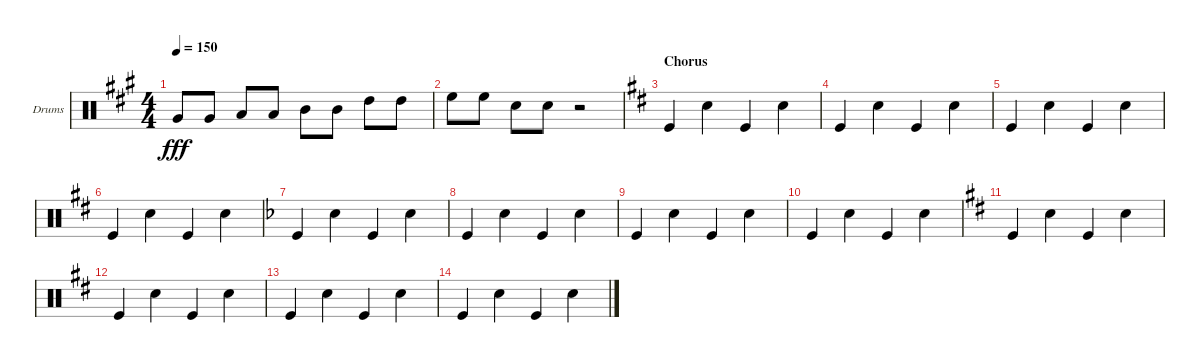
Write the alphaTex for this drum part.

\defaultSystemsLayout 4
\bracketExtendMode groupsimilarinstruments
\firstSystemTrackNameOrientation horizontal
\otherSystemsTrackNameOrientation horizontal
\track ("Drumkit" "Drums") {instrument percussion}
\staff {score}
\articulation defaults
\ts (4 4)
\tempo 150
\clef neutral
\scale
0.333333
\ks a "Very Low Tom (hit)".8{dy fff} "Very Low Tom (hit)".8 "Low Tom (hit)".8 "Low Tom (hit)".8 "Mid Tom (hit)".8 "Mid Tom (hit)".8 "High Tom (hit)".8 "High Tom (hit)".8
|
\scale
0.265116 "High Floor Tom (hit)".8 "High Floor Tom (hit)".8 "Snare (hit) 2".8 "Snare (hit) 2".8 r.2 |
\section ("" "Chorus")
\scale
0.469767
\ks d "Kick (hit)".4 "Snare (hit) 2".4 "Kick (hit)".4 "Snare (hit) 2".4
|
\scale
0.265116 "Kick (hit)".4 "Snare (hit) 2".4 "Kick (hit)".4 "Snare (hit) 2".4 |
\scale
0.259091 "Kick (hit)".4 "Snare (hit) 2".4 "Kick (hit)".4 "Snare (hit) 2".4 |
\scale
0.259091 "Kick (hit)".4 "Snare (hit) 2".4 "Kick (hit)".4 "Snare (hit) 2".4 |
\scale
0.481818
\ks f "Kick (hit)".4 "Snare (hit) 2".4 "Kick (hit)".4 "Snare (hit) 2".4
|
\scale
0.333333 "Kick (hit)".4 "Snare (hit) 2".4 "Kick (hit)".4 "Snare (hit) 2".4 |
\scale
0.333333 "Kick (hit)".4 "Snare (hit) 2".4 "Kick (hit)".4 "Snare (hit) 2".4 |
\scale
0.333333 "Kick (hit)".4 "Snare (hit) 2".4 "Kick (hit)".4 "Snare (hit) 2".4 |
\scale
0.484163
\ks d "Kick (hit)".4 "Snare (hit) 2".4 "Kick (hit)".4 "Snare (hit) 2".4
|
\scale
0.257919 "Kick (hit)".4 "Snare (hit) 2".4 "Kick (hit)".4 "Snare (hit) 2".4 |
\scale
0.257919 "Kick (hit)".4 "Snare (hit) 2".4 "Kick (hit)".4 "Snare (hit) 2".4 |
"Kick (hit)".4 "Snare (hit) 2".4 "Kick (hit)".4 "Snare (hit) 2".4
